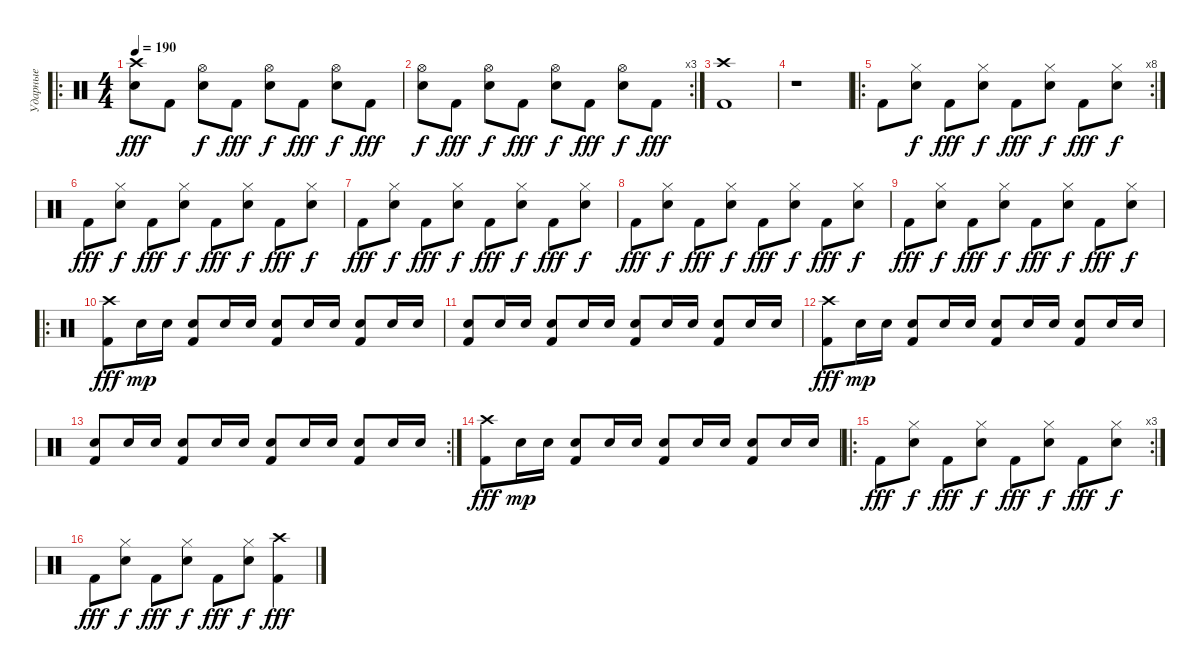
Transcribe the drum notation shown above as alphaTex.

\track ("Ударные" "Ударные") {instrument percussion}
\staff
\articulation defaults
\ro
\ts (4 4)
\tempo 190
\clef neutral
\ks c
("Snare (hit) 2" "Crash high (hit)").8{dy fff} "Kick (hit) 2".8 ("Snare (hit) 2" "Hi-Hat (open)").8{dy f} "Kick (hit) 2".8{dy fff} ("Snare (hit) 2" "Hi-Hat (open)").8{dy f} "Kick (hit) 2".8{dy fff} ("Snare (hit) 2" "Hi-Hat (open)").8{dy f} "Kick (hit) 2".8{dy fff} |
\rc 3
("Snare (hit) 2" "Hi-Hat (open)").8{dy f} "Kick (hit) 2".8{dy fff} ("Snare (hit) 2" "Hi-Hat (open)").8{dy f} "Kick (hit) 2".8{dy fff} ("Snare (hit) 2" "Hi-Hat (open)").8{dy f} "Kick (hit) 2".8{dy fff} ("Snare (hit) 2" "Hi-Hat (open)").8{dy f} "Kick (hit) 2".8{dy fff} |
("Kick (hit) 2" "Crash high (hit)").1 |
r.1 |
\ro
\rc 8 "Kick (hit) 2".8
("Snare (hit) 2" "Hi-Hat (closed)").8{dy f} "Kick (hit) 2".8{dy fff} ("Snare (hit) 2" "Hi-Hat (closed)").8{dy f} "Kick (hit) 2".8{dy fff} ("Snare (hit) 2" "Hi-Hat (closed)").8{dy f} "Kick (hit) 2".8{dy fff} ("Snare (hit) 2" "Hi-Hat (closed)").8{dy f} |
"Kick (hit) 2".8{dy fff} ("Snare (hit) 2" "Hi-Hat (closed)").8{dy f} "Kick (hit) 2".8{dy fff} ("Snare (hit) 2" "Hi-Hat (closed)").8{dy f} "Kick (hit) 2".8{dy fff} ("Snare (hit) 2" "Hi-Hat (closed)").8{dy f} "Kick (hit) 2".8{dy fff} ("Snare (hit) 2" "Hi-Hat (closed)").8{dy f} |
"Kick (hit) 2".8{dy fff} ("Snare (hit) 2" "Hi-Hat (closed)").8{dy f} "Kick (hit) 2".8{dy fff} ("Snare (hit) 2" "Hi-Hat (closed)").8{dy f} "Kick (hit) 2".8{dy fff} ("Snare (hit) 2" "Hi-Hat (closed)").8{dy f} "Kick (hit) 2".8{dy fff} ("Snare (hit) 2" "Hi-Hat (closed)").8{dy f} |
"Kick (hit) 2".8{dy fff} ("Snare (hit) 2" "Hi-Hat (closed)").8{dy f} "Kick (hit) 2".8{dy fff} ("Snare (hit) 2" "Hi-Hat (closed)").8{dy f} "Kick (hit) 2".8{dy fff} ("Snare (hit) 2" "Hi-Hat (closed)").8{dy f} "Kick (hit) 2".8{dy fff} ("Snare (hit) 2" "Hi-Hat (closed)").8{dy f} |
"Kick (hit) 2".8{dy fff} ("Snare (hit) 2" "Hi-Hat (closed)").8{dy f} "Kick (hit) 2".8{dy fff} ("Snare (hit) 2" "Hi-Hat (closed)").8{dy f} "Kick (hit) 2".8{dy fff} ("Snare (hit) 2" "Hi-Hat (closed)").8{dy f} "Kick (hit) 2".8{dy fff} ("Snare (hit) 2" "Hi-Hat (closed)").8{dy f} |
\ro
("Kick (hit) 2" "Crash high (hit)").8{dy fff} "Snare (hit) 2".16{dy mp} "Snare (hit) 2".16 ("Kick (hit) 2" "Snare (hit) 2").8 "Snare (hit) 2".16 "Snare (hit) 2".16 ("Kick (hit) 2" "Snare (hit) 2").8 "Snare (hit) 2".16 "Snare (hit) 2".16 ("Kick (hit) 2" "Snare (hit) 2").8 "Snare (hit) 2".16 "Snare (hit) 2".16 |
("Kick (hit) 2" "Snare (hit) 2").8 "Snare (hit) 2".16 "Snare (hit) 2".16 ("Kick (hit) 2" "Snare (hit) 2").8 "Snare (hit) 2".16 "Snare (hit) 2".16 ("Kick (hit) 2" "Snare (hit) 2").8 "Snare (hit) 2".16 "Snare (hit) 2".16 ("Kick (hit) 2" "Snare (hit) 2").8 "Snare (hit) 2".16 "Snare (hit) 2".16 |
("Kick (hit) 2" "Crash high (hit)").8{dy fff} "Snare (hit) 2".16{dy mp} "Snare (hit) 2".16 ("Kick (hit) 2" "Snare (hit) 2").8 "Snare (hit) 2".16 "Snare (hit) 2".16 ("Kick (hit) 2" "Snare (hit) 2").8 "Snare (hit) 2".16 "Snare (hit) 2".16 ("Kick (hit) 2" "Snare (hit) 2").8 "Snare (hit) 2".16 "Snare (hit) 2".16 |
\rc 2
("Kick (hit) 2" "Snare (hit) 2").8 "Snare (hit) 2".16 "Snare (hit) 2".16 ("Kick (hit) 2" "Snare (hit) 2").8 "Snare (hit) 2".16 "Snare (hit) 2".16 ("Kick (hit) 2" "Snare (hit) 2").8 "Snare (hit) 2".16 "Snare (hit) 2".16 ("Kick (hit) 2" "Snare (hit) 2").8 "Snare (hit) 2".16 "Snare (hit) 2".16 |
("Kick (hit) 2" "Crash high (hit)").8{dy fff} "Snare (hit) 2".16{dy mp} "Snare (hit) 2".16 ("Kick (hit) 2" "Snare (hit) 2").8 "Snare (hit) 2".16 "Snare (hit) 2".16 ("Kick (hit) 2" "Snare (hit) 2").8 "Snare (hit) 2".16 "Snare (hit) 2".16 ("Kick (hit) 2" "Snare (hit) 2").8 "Snare (hit) 2".16 "Snare (hit) 2".16 |
\ro
\rc 3 "Kick (hit) 2".8{dy fff}
("Snare (hit) 2" "Hi-Hat (closed)").8{dy f} "Kick (hit) 2".8{dy fff} ("Snare (hit) 2" "Hi-Hat (closed)").8{dy f} "Kick (hit) 2".8{dy fff} ("Snare (hit) 2" "Hi-Hat (closed)").8{dy f} "Kick (hit) 2".8{dy fff} ("Snare (hit) 2" "Hi-Hat (closed)").8{dy f} |
"Kick (hit) 2".8{dy fff} ("Snare (hit) 2" "Hi-Hat (closed)").8{dy f} "Kick (hit) 2".8{dy fff} ("Snare (hit) 2" "Hi-Hat (closed)").8{dy f} "Kick (hit) 2".8{dy fff} ("Snare (hit) 2" "Hi-Hat (closed)").8{dy f} ("Kick (hit) 2" "Crash high (hit)").4{dy fff}
